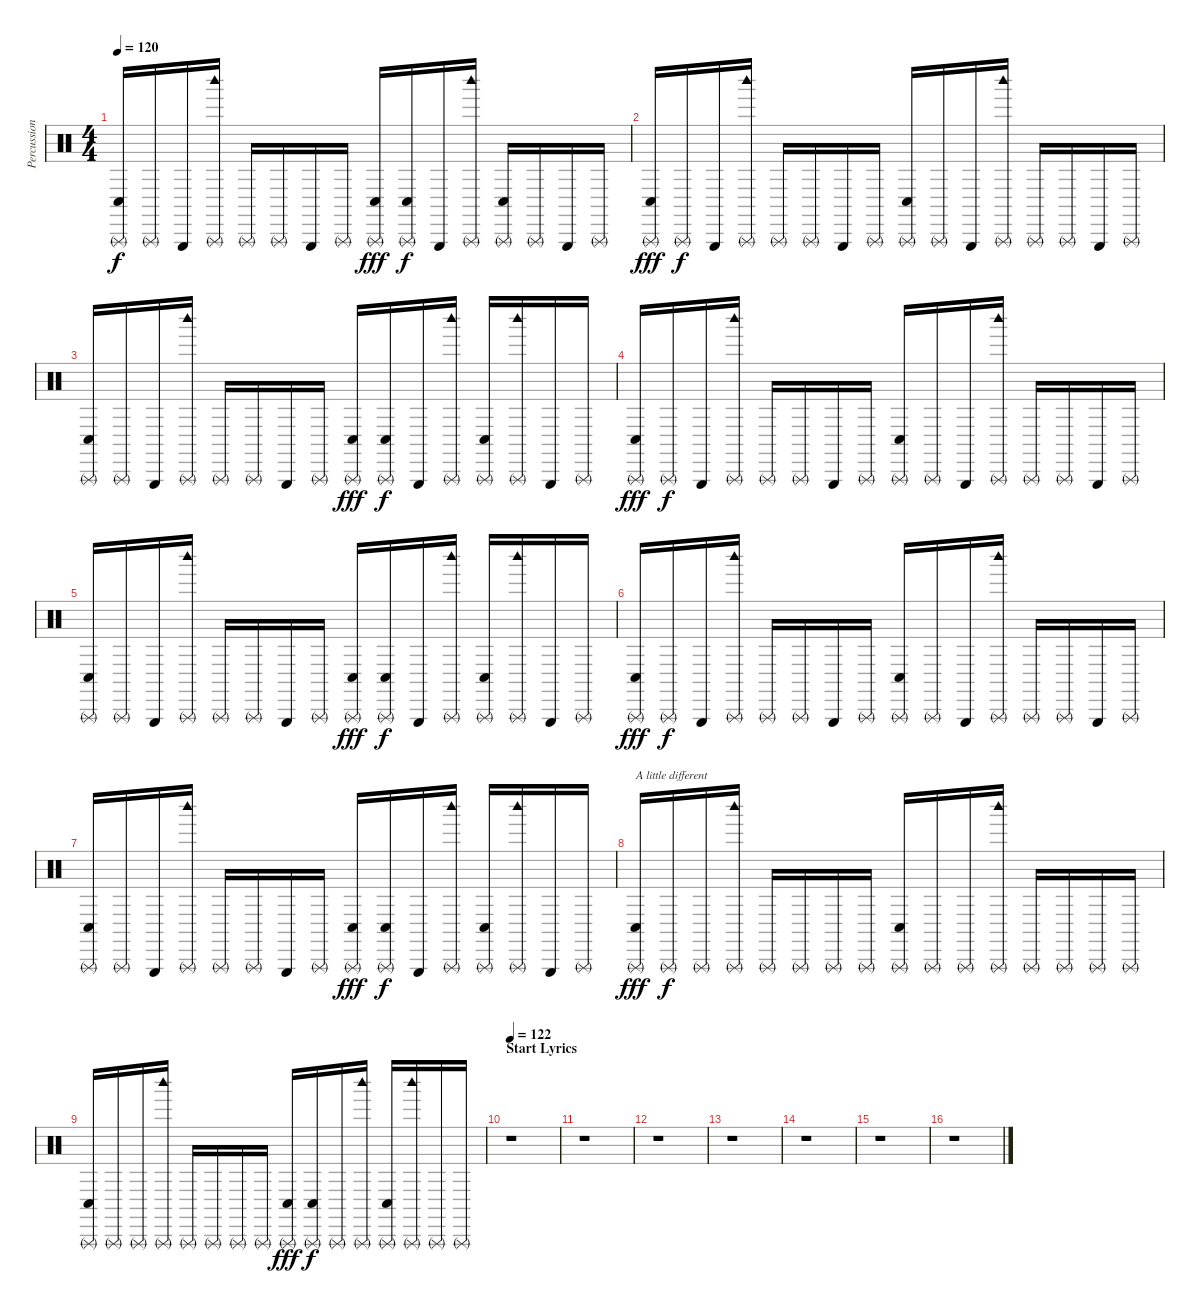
\track ("Percussion" "Percussion") {instrument percussion}
\staff {score}
\articulation defaults
\ts (4 4)
\tempo 120
\clef neutral
\ks c
("Conga low (hit)" "Triangle (rnute)").16{dy f} "Triangle (rnute)".16 "Triangle (hit)".16 ("Woodblock high (hit)" "Triangle (rnute)").16 "Triangle (rnute)".16 "Triangle (rnute)".16 "Triangle (hit)".16 "Triangle (rnute)".16 ("Conga low (hit)" "Triangle (rnute)").16{dy fff} ("Conga low (hit)" "Triangle (rnute)").16{dy f} "Triangle (hit)".16 ("Woodblock high (hit)" "Triangle (rnute)").16 ("Conga low (hit)" "Triangle (rnute)").16 "Triangle (rnute)".16 "Triangle (hit)".16 "Triangle (rnute)".16 |
("Conga low (hit)" "Triangle (rnute)").16{dy fff} "Triangle (rnute)".16{dy f} "Triangle (hit)".16 ("Woodblock high (hit)" "Triangle (rnute)").16 "Triangle (rnute)".16 "Triangle (rnute)".16 "Triangle (hit)".16 "Triangle (rnute)".16 ("Conga low (hit)" "Triangle (rnute)").16 "Triangle (rnute)".16 "Triangle (hit)".16 ("Woodblock high (hit)" "Triangle (rnute)").16 "Triangle (rnute)".16 "Triangle (rnute)".16 "Triangle (hit)".16 "Triangle (rnute)".16 |
("Conga low (hit)" "Triangle (rnute)").16 "Triangle (rnute)".16 "Triangle (hit)".16 ("Woodblock high (hit)" "Triangle (rnute)").16 "Triangle (rnute)".16 "Triangle (rnute)".16 "Triangle (hit)".16 "Triangle (rnute)".16 ("Conga low (hit)" "Triangle (rnute)").16{dy fff} ("Conga low (hit)" "Triangle (rnute)").16{dy f} "Triangle (hit)".16 ("Woodblock high (hit)" "Triangle (rnute)").16 ("Conga low (hit)" "Triangle (rnute)").16 ("Woodblock high (hit)" "Triangle (rnute)").16 "Triangle (hit)".16 "Triangle (rnute)".16 |
("Conga low (hit)" "Triangle (rnute)").16{dy fff} "Triangle (rnute)".16{dy f} "Triangle (hit)".16 ("Woodblock high (hit)" "Triangle (rnute)").16 "Triangle (rnute)".16 "Triangle (rnute)".16 "Triangle (hit)".16 "Triangle (rnute)".16 ("Conga low (hit)" "Triangle (rnute)").16 "Triangle (rnute)".16 "Triangle (hit)".16 ("Woodblock high (hit)" "Triangle (rnute)").16 "Triangle (rnute)".16 "Triangle (rnute)".16 "Triangle (hit)".16 "Triangle (rnute)".16 |
("Conga low (hit)" "Triangle (rnute)").16 "Triangle (rnute)".16 "Triangle (hit)".16 ("Woodblock high (hit)" "Triangle (rnute)").16 "Triangle (rnute)".16 "Triangle (rnute)".16 "Triangle (hit)".16 "Triangle (rnute)".16 ("Conga low (hit)" "Triangle (rnute)").16{dy fff} ("Conga low (hit)" "Triangle (rnute)").16{dy f} "Triangle (hit)".16 ("Woodblock high (hit)" "Triangle (rnute)").16 ("Conga low (hit)" "Triangle (rnute)").16 ("Woodblock high (hit)" "Triangle (rnute)").16 "Triangle (hit)".16 "Triangle (rnute)".16 |
("Conga low (hit)" "Triangle (rnute)").16{dy fff} "Triangle (rnute)".16{dy f} "Triangle (hit)".16 ("Woodblock high (hit)" "Triangle (rnute)").16 "Triangle (rnute)".16 "Triangle (rnute)".16 "Triangle (hit)".16 "Triangle (rnute)".16 ("Conga low (hit)" "Triangle (rnute)").16 "Triangle (rnute)".16 "Triangle (hit)".16 ("Woodblock high (hit)" "Triangle (rnute)").16 "Triangle (rnute)".16 "Triangle (rnute)".16 "Triangle (hit)".16 "Triangle (rnute)".16 |
("Conga low (hit)" "Triangle (rnute)").16 "Triangle (rnute)".16 "Triangle (hit)".16 ("Woodblock high (hit)" "Triangle (rnute)").16 "Triangle (rnute)".16 "Triangle (rnute)".16 "Triangle (hit)".16 "Triangle (rnute)".16 ("Conga low (hit)" "Triangle (rnute)").16{dy fff} ("Conga low (hit)" "Triangle (rnute)").16{dy f} "Triangle (hit)".16 ("Woodblock high (hit)" "Triangle (rnute)").16 ("Conga low (hit)" "Triangle (rnute)").16 ("Woodblock high (hit)" "Triangle (rnute)").16 "Triangle (hit)".16 "Triangle (rnute)".16 |
("Conga low (hit)" "Triangle (rnute)").16{txt "A little different" dy fff} "Triangle (rnute)".16{dy f} "Triangle (rnute)".16 ("Woodblock high (hit)" "Triangle (rnute)").16 "Triangle (rnute)".16 "Triangle (rnute)".16 "Triangle (rnute)".16 "Triangle (rnute)".16 ("Conga low (hit)" "Triangle (rnute)").16 "Triangle (rnute)".16 "Triangle (rnute)".16 ("Woodblock high (hit)" "Triangle (rnute)").16 "Triangle (rnute)".16 "Triangle (rnute)".16 "Triangle (rnute)".16 "Triangle (rnute)".16 |
("Conga low (hit)" "Triangle (rnute)").16 "Triangle (rnute)".16 "Triangle (rnute)".16 ("Woodblock high (hit)" "Triangle (rnute)").16 "Triangle (rnute)".16 "Triangle (rnute)".16 "Triangle (rnute)".16 "Triangle (rnute)".16 ("Conga low (hit)" "Triangle (rnute)").16{dy fff} ("Conga low (hit)" "Triangle (rnute)").16{dy f} "Triangle (rnute)".16 ("Woodblock high (hit)" "Triangle (rnute)").16 ("Conga low (hit)" "Triangle (rnute)").16 ("Woodblock high (hit)" "Triangle (rnute)").16 "Triangle (rnute)".16 "Triangle (rnute)".16 |
\section ("" "Start Lyrics")
\tempo 122
r.1 |
r.1 |
r.1 |
r.1 |
r.1 |
r.1 |
r.1
